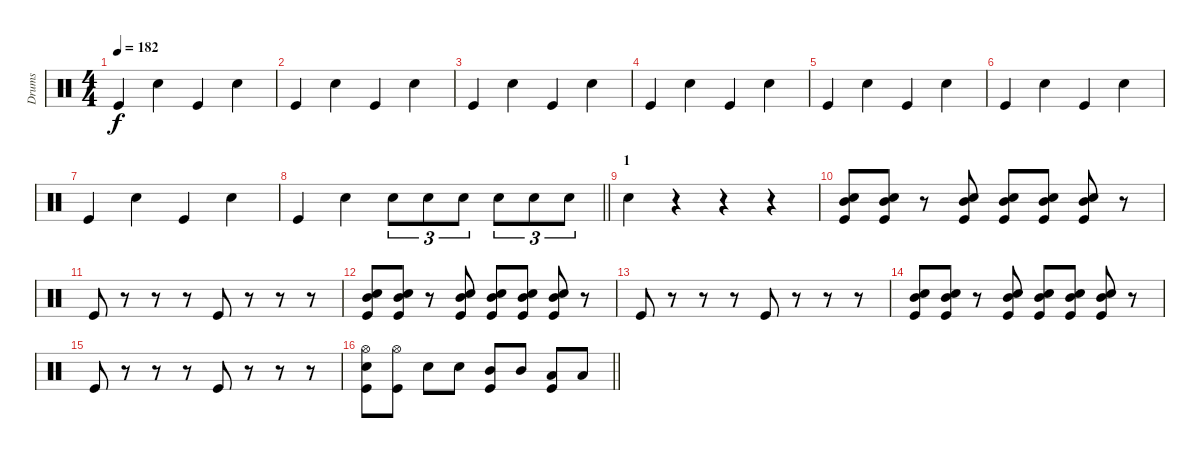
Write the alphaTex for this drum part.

\track ("Drums" "Drums") {instrument percussion}
\staff {score}
\articulation defaults
\ts (4 4)
\tempo 182
\clef neutral
\ks c "Kick (hit)".4{dy f} "Electric Snare (hit)".4 "Kick (hit)".4 "Electric Snare (hit)".4
|
"Kick (hit)".4 "Electric Snare (hit)".4 "Kick (hit)".4 "Electric Snare (hit)".4 |
"Kick (hit)".4 "Electric Snare (hit)".4 "Kick (hit)".4 "Electric Snare (hit)".4 |
"Kick (hit)".4 "Electric Snare (hit)".4 "Kick (hit)".4 "Electric Snare (hit)".4 |
"Kick (hit)".4 "Electric Snare (hit)".4 "Kick (hit)".4 "Electric Snare (hit)".4 |
"Kick (hit)".4 "Electric Snare (hit)".4 "Kick (hit)".4 "Electric Snare (hit)".4 |
"Kick (hit)".4 "Electric Snare (hit)".4 "Kick (hit)".4 "Electric Snare (hit)".4 |
\barLineRight lightlight "Kick (hit)".4 "Electric Snare (hit)".4 "Electric Snare (hit)".8{tu (3 2)} "Electric Snare (hit)".8{tu (3 2)} "Electric Snare (hit)".8{tu (3 2)} "Electric Snare (hit)".8{tu (3 2)} "Electric Snare (hit)".8{tu (3 2)} "Electric Snare (hit)".8{tu (3 2)}
|
\section ("" "1")
"Electric Snare (hit)".4 r.4 r.4 r.4 |
("Mid Tom (hit)" "Electric Snare (hit)" "Kick (hit)").8 ("Mid Tom (hit)" "Electric Snare (hit)" "Kick (hit)").8 r.8 ("Mid Tom (hit)" "Electric Snare (hit)" "Kick (hit)").8 ("Mid Tom (hit)" "Electric Snare (hit)" "Kick (hit)").8 ("Mid Tom (hit)" "Electric Snare (hit)" "Kick (hit)").8 ("Mid Tom (hit)" "Electric Snare (hit)" "Kick (hit)").8 r.8 |
"Kick (hit)".8 r.8 r.8 r.8 "Kick (hit)".8 r.8 r.8 r.8 |
("Mid Tom (hit)" "Electric Snare (hit)" "Kick (hit)").8 ("Mid Tom (hit)" "Electric Snare (hit)" "Kick (hit)").8 r.8 ("Mid Tom (hit)" "Electric Snare (hit)" "Kick (hit)").8 ("Mid Tom (hit)" "Electric Snare (hit)" "Kick (hit)").8 ("Mid Tom (hit)" "Electric Snare (hit)" "Kick (hit)").8 ("Mid Tom (hit)" "Electric Snare (hit)" "Kick (hit)").8 r.8 |
"Kick (hit)".8 r.8 r.8 r.8 "Kick (hit)".8 r.8 r.8 r.8 |
("Mid Tom (hit)" "Electric Snare (hit)" "Kick (hit)").8 ("Mid Tom (hit)" "Electric Snare (hit)" "Kick (hit)").8 r.8 ("Mid Tom (hit)" "Electric Snare (hit)" "Kick (hit)").8 ("Mid Tom (hit)" "Electric Snare (hit)" "Kick (hit)").8 ("Mid Tom (hit)" "Electric Snare (hit)" "Kick (hit)").8 ("Mid Tom (hit)" "Electric Snare (hit)" "Kick (hit)").8 r.8 |
"Kick (hit)".8 r.8 r.8 r.8 "Kick (hit)".8 r.8 r.8 r.8 |
\barLineRight lightlight
("Hi-Hat (open)" "Electric Snare (hit)" "Kick (hit)").8 ("Hi-Hat (open)" "Kick (hit)").8 "Electric Snare (hit)".8 "Electric Snare (hit)".8 ("Mid Tom (hit)" "Kick (hit)").8 "Mid Tom (hit)".8 ("Low Tom (hit)" "Kick (hit)").8 "Low Tom (hit)".8
